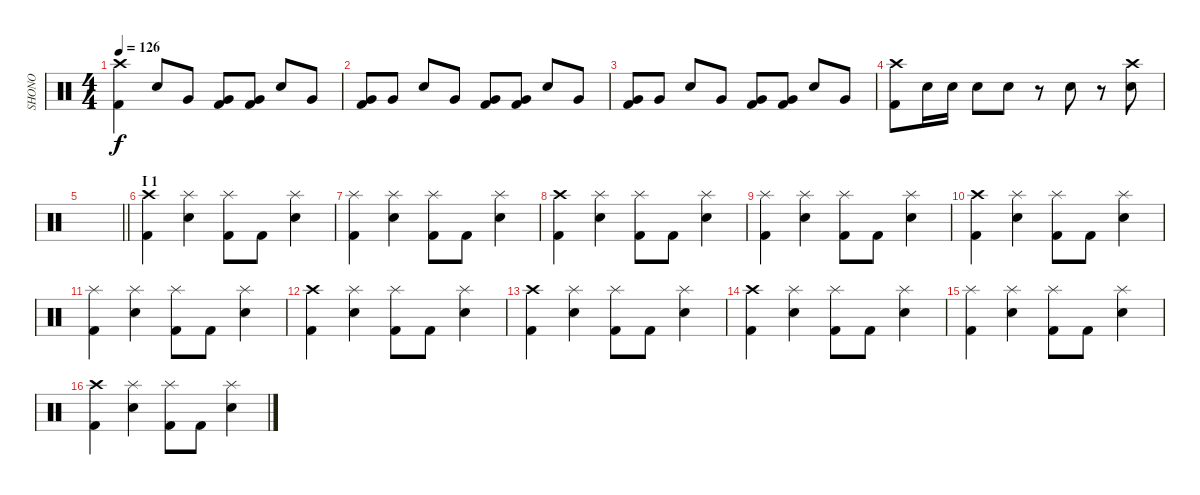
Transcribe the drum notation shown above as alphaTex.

\track ("SHONO" "SHONO") {instrument percussion}
\staff {score}
\articulation defaults
\ts (4 4)
\tempo 126
\clef neutral
\ks c
("Crash high (hit)" "Kick (hit) 2").4{dy f} "Snare (hit) 2".8 "Very Low Tom (hit)".8 ("Very Low Tom (hit)" "Kick (hit) 2").8 ("Very Low Tom (hit)" "Kick (hit) 2").8 "Snare (hit) 2".8 "Very Low Tom (hit)".8 |
("Very Low Tom (hit)" "Kick (hit) 2").8 "Very Low Tom (hit)".8 "Snare (hit) 2".8 "Very Low Tom (hit)".8 ("Very Low Tom (hit)" "Kick (hit) 2").8 ("Very Low Tom (hit)" "Kick (hit) 2").8 "Snare (hit) 2".8 "Very Low Tom (hit)".8 |
("Very Low Tom (hit)" "Kick (hit) 2").8 "Very Low Tom (hit)".8 "Snare (hit) 2".8 "Very Low Tom (hit)".8 ("Very Low Tom (hit)" "Kick (hit) 2").8 ("Very Low Tom (hit)" "Kick (hit) 2").8 "Snare (hit) 2".8 "Very Low Tom (hit)".8 |
("Crash high (hit)" "Kick (hit) 2").8 "Snare (hit) 2".16 "Snare (hit) 2".16 "Snare (hit) 2".8 "Snare (hit) 2".8 r.8 "Snare (hit) 2".8 r.8 ("Crash high (hit)" "Snare (hit) 2").8 |
\barLineRight lightlight
|
\section ("" "I 1")
("Crash high (hit)" "Kick (hit) 2").4 ("Splash (hit)" "Snare (hit) 2").4 ("Splash (hit)" "Kick (hit) 2").8 "Kick (hit) 2".8 ("Splash (hit)" "Snare (hit) 2").4 |
("Splash (hit)" "Kick (hit) 2").4 ("Splash (hit)" "Snare (hit) 2").4 ("Splash (hit)" "Kick (hit) 2").8 "Kick (hit) 2".8 ("Splash (hit)" "Snare (hit) 2").4 |
("Crash high (hit)" "Kick (hit) 2").4 ("Splash (hit)" "Snare (hit) 2").4 ("Splash (hit)" "Kick (hit) 2").8 "Kick (hit) 2".8 ("Splash (hit)" "Snare (hit) 2").4 |
("Splash (hit)" "Kick (hit) 2").4 ("Splash (hit)" "Snare (hit) 2").4 ("Splash (hit)" "Kick (hit) 2").8 "Kick (hit) 2".8 ("Splash (hit)" "Snare (hit) 2").4 |
("Crash high (hit)" "Kick (hit) 2").4 ("Splash (hit)" "Snare (hit) 2").4 ("Splash (hit)" "Kick (hit) 2").8 "Kick (hit) 2".8 ("Splash (hit)" "Snare (hit) 2").4 |
("Splash (hit)" "Kick (hit) 2").4 ("Splash (hit)" "Snare (hit) 2").4 ("Splash (hit)" "Kick (hit) 2").8 "Kick (hit) 2".8 ("Splash (hit)" "Snare (hit) 2").4 |
("Crash high (hit)" "Kick (hit) 2").4 ("Splash (hit)" "Snare (hit) 2").4 ("Splash (hit)" "Kick (hit) 2").8 "Kick (hit) 2".8 ("Splash (hit)" "Snare (hit) 2").4 |
("Crash high (hit)" "Kick (hit) 2").4 ("Splash (hit)" "Snare (hit) 2").4 ("Splash (hit)" "Kick (hit) 2").8 "Kick (hit) 2".8 ("Splash (hit)" "Snare (hit) 2").4 |
("Crash high (hit)" "Kick (hit) 2").4 ("Splash (hit)" "Snare (hit) 2").4 ("Splash (hit)" "Kick (hit) 2").8 "Kick (hit) 2".8 ("Splash (hit)" "Snare (hit) 2").4 |
("Splash (hit)" "Kick (hit) 2").4 ("Splash (hit)" "Snare (hit) 2").4 ("Splash (hit)" "Kick (hit) 2").8 "Kick (hit) 2".8 ("Splash (hit)" "Snare (hit) 2").4 |
("Crash high (hit)" "Kick (hit) 2").4 ("Splash (hit)" "Snare (hit) 2").4 ("Splash (hit)" "Kick (hit) 2").8 "Kick (hit) 2".8 ("Splash (hit)" "Snare (hit) 2").4
